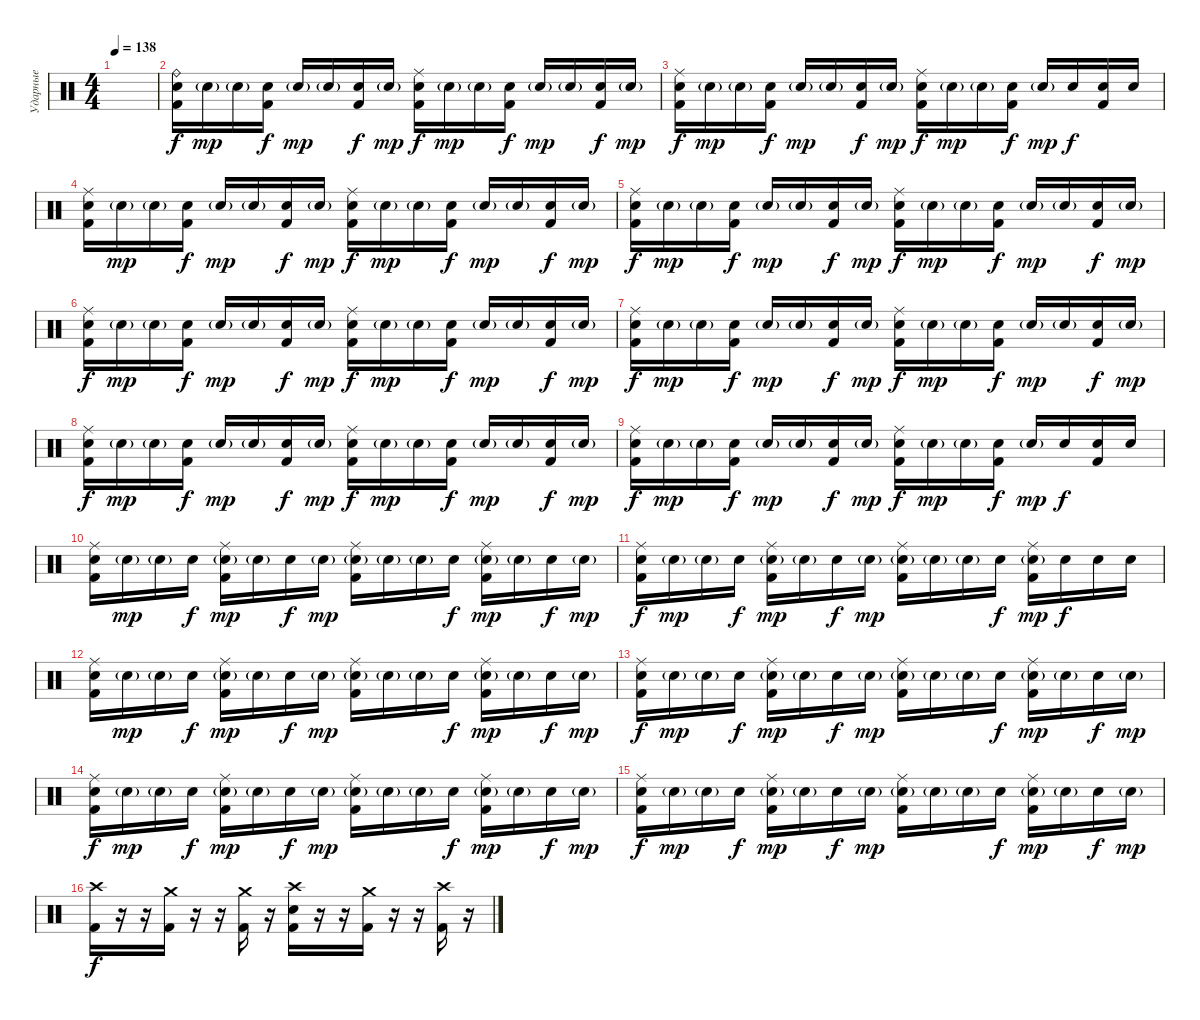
\track ("Ударные" "Ударные") {instrument percussion}
\staff {score}
\articulation defaults
\ts (4 4)
\tempo 138
\clef neutral
\ks c
|
("Electric Snare (hit)" "Kick (hit) 2" "Ride (bell)").16 "Electric Snare (hit)"{g}.16{dy mp} "Electric Snare (hit)"{g}.16 ("Electric Snare (hit)" "Kick (hit) 2").16{dy f} "Electric Snare (hit)"{g}.16{dy mp} "Electric Snare (hit)"{g}.16 ("Electric Snare (hit)" "Kick (hit) 2").16{dy f} "Electric Snare (hit)"{g}.16{dy mp} ("Electric Snare (hit)" "Kick (hit) 2" "Ride (middle)").16{dy f} "Electric Snare (hit)"{g}.16{dy mp} "Electric Snare (hit)"{g}.16 ("Electric Snare (hit)" "Kick (hit) 2").16{dy f} "Electric Snare (hit)"{g}.16{dy mp} "Electric Snare (hit)"{g}.16 ("Electric Snare (hit)" "Kick (hit) 2").16{dy f} "Electric Snare (hit)"{g}.16{dy mp} |
("Electric Snare (hit)" "Kick (hit) 2" "Ride (middle)").16{dy f} "Electric Snare (hit)"{g}.16{dy mp} "Electric Snare (hit)"{g}.16 ("Electric Snare (hit)" "Kick (hit) 2").16{dy f} "Electric Snare (hit)"{g}.16{dy mp} "Electric Snare (hit)"{g}.16 ("Electric Snare (hit)" "Kick (hit) 2").16{dy f} "Electric Snare (hit)"{g}.16{dy mp} ("Electric Snare (hit)" "Kick (hit) 2" "Ride (middle)").16{dy f} "Electric Snare (hit)"{g}.16{dy mp} "Electric Snare (hit)"{g}.16 ("Electric Snare (hit)" "Kick (hit) 2").16{dy f} "Electric Snare (hit)"{g}.16{dy mp} "Electric Snare (hit)".16{dy f} ("Electric Snare (hit)" "Kick (hit) 2").16 "Electric Snare (hit)".16 |
("Electric Snare (hit)" "Kick (hit) 2" "Ride (middle)").16 "Electric Snare (hit)"{g}.16{dy mp} "Electric Snare (hit)"{g}.16 ("Electric Snare (hit)" "Kick (hit) 2").16{dy f} "Electric Snare (hit)"{g}.16{dy mp} "Electric Snare (hit)"{g}.16 ("Electric Snare (hit)" "Kick (hit) 2").16{dy f} "Electric Snare (hit)"{g}.16{dy mp} ("Electric Snare (hit)" "Kick (hit) 2" "Ride (middle)").16{dy f} "Electric Snare (hit)"{g}.16{dy mp} "Electric Snare (hit)"{g}.16 ("Electric Snare (hit)" "Kick (hit) 2").16{dy f} "Electric Snare (hit)"{g}.16{dy mp} "Electric Snare (hit)"{g}.16 ("Electric Snare (hit)" "Kick (hit) 2").16{dy f} "Electric Snare (hit)"{g}.16{dy mp} |
("Electric Snare (hit)" "Kick (hit) 2" "Ride (middle)").16{dy f} "Electric Snare (hit)"{g}.16{dy mp} "Electric Snare (hit)"{g}.16 ("Electric Snare (hit)" "Kick (hit) 2").16{dy f} "Electric Snare (hit)"{g}.16{dy mp} "Electric Snare (hit)"{g}.16 ("Electric Snare (hit)" "Kick (hit) 2").16{dy f} "Electric Snare (hit)"{g}.16{dy mp} ("Electric Snare (hit)" "Kick (hit) 2" "Ride (middle)").16{dy f} "Electric Snare (hit)"{g}.16{dy mp} "Electric Snare (hit)"{g}.16 ("Electric Snare (hit)" "Kick (hit) 2").16{dy f} "Electric Snare (hit)"{g}.16{dy mp} "Electric Snare (hit)"{g}.16 ("Electric Snare (hit)" "Kick (hit) 2").16{dy f} "Electric Snare (hit)"{g}.16{dy mp} |
("Electric Snare (hit)" "Kick (hit) 2" "Ride (middle)").16{dy f} "Electric Snare (hit)"{g}.16{dy mp} "Electric Snare (hit)"{g}.16 ("Electric Snare (hit)" "Kick (hit) 2").16{dy f} "Electric Snare (hit)"{g}.16{dy mp} "Electric Snare (hit)"{g}.16 ("Electric Snare (hit)" "Kick (hit) 2").16{dy f} "Electric Snare (hit)"{g}.16{dy mp} ("Electric Snare (hit)" "Kick (hit) 2" "Ride (middle)").16{dy f} "Electric Snare (hit)"{g}.16{dy mp} "Electric Snare (hit)"{g}.16 ("Electric Snare (hit)" "Kick (hit) 2").16{dy f} "Electric Snare (hit)"{g}.16{dy mp} "Electric Snare (hit)"{g}.16 ("Electric Snare (hit)" "Kick (hit) 2").16{dy f} "Electric Snare (hit)"{g}.16{dy mp} |
("Electric Snare (hit)" "Kick (hit) 2" "Ride (middle)").16{dy f} "Electric Snare (hit)"{g}.16{dy mp} "Electric Snare (hit)"{g}.16 ("Electric Snare (hit)" "Kick (hit) 2").16{dy f} "Electric Snare (hit)"{g}.16{dy mp} "Electric Snare (hit)"{g}.16 ("Electric Snare (hit)" "Kick (hit) 2").16{dy f} "Electric Snare (hit)"{g}.16{dy mp} ("Electric Snare (hit)" "Kick (hit) 2" "Ride (middle)").16{dy f} "Electric Snare (hit)"{g}.16{dy mp} "Electric Snare (hit)"{g}.16 ("Electric Snare (hit)" "Kick (hit) 2").16{dy f} "Electric Snare (hit)"{g}.16{dy mp} "Electric Snare (hit)"{g}.16 ("Electric Snare (hit)" "Kick (hit) 2").16{dy f} "Electric Snare (hit)"{g}.16{dy mp} |
("Electric Snare (hit)" "Kick (hit) 2" "Ride (middle)").16{dy f} "Electric Snare (hit)"{g}.16{dy mp} "Electric Snare (hit)"{g}.16 ("Electric Snare (hit)" "Kick (hit) 2").16{dy f} "Electric Snare (hit)"{g}.16{dy mp} "Electric Snare (hit)"{g}.16 ("Electric Snare (hit)" "Kick (hit) 2").16{dy f} "Electric Snare (hit)"{g}.16{dy mp} ("Electric Snare (hit)" "Kick (hit) 2" "Ride (middle)").16{dy f} "Electric Snare (hit)"{g}.16{dy mp} "Electric Snare (hit)"{g}.16 ("Electric Snare (hit)" "Kick (hit) 2").16{dy f} "Electric Snare (hit)"{g}.16{dy mp} "Electric Snare (hit)"{g}.16 ("Electric Snare (hit)" "Kick (hit) 2").16{dy f} "Electric Snare (hit)"{g}.16{dy mp} |
("Electric Snare (hit)" "Kick (hit) 2" "Ride (middle)").16{dy f} "Electric Snare (hit)"{g}.16{dy mp} "Electric Snare (hit)"{g}.16 ("Electric Snare (hit)" "Kick (hit) 2").16{dy f} "Electric Snare (hit)"{g}.16{dy mp} "Electric Snare (hit)"{g}.16 ("Electric Snare (hit)" "Kick (hit) 2").16{dy f} "Electric Snare (hit)"{g}.16{dy mp} ("Electric Snare (hit)" "Kick (hit) 2" "Ride (middle)").16{dy f} "Electric Snare (hit)"{g}.16{dy mp} "Electric Snare (hit)"{g}.16 ("Electric Snare (hit)" "Kick (hit) 2").16{dy f} "Electric Snare (hit)"{g}.16{dy mp} "Electric Snare (hit)".16{dy f} ("Electric Snare (hit)" "Kick (hit) 2").16 "Electric Snare (hit)".16 |
("Electric Snare (hit)" "Kick (hit) 2" "Ride (middle)").16 "Electric Snare (hit)"{g}.16{dy mp} "Electric Snare (hit)"{g}.16 "Electric Snare (hit)".16{dy f} ("Electric Snare (hit)"{g} "Ride (middle)" "Kick (hit) 2").16{dy mp} "Electric Snare (hit)"{g}.16 "Electric Snare (hit)".16{dy f} "Electric Snare (hit)"{g}.16{dy mp} ("Electric Snare (hit)"{g} "Kick (hit) 2" "Ride (middle)").16 "Electric Snare (hit)"{g}.16 "Electric Snare (hit)"{g}.16 "Electric Snare (hit)".16{dy f} ("Electric Snare (hit)"{g} "Ride (middle)" "Kick (hit) 2").16{dy mp} "Electric Snare (hit)"{g}.16 "Electric Snare (hit)".16{dy f} "Electric Snare (hit)"{g}.16{dy mp} |
("Electric Snare (hit)" "Kick (hit) 2" "Ride (middle)").16{dy f} "Electric Snare (hit)"{g}.16{dy mp} "Electric Snare (hit)"{g}.16 "Electric Snare (hit)".16{dy f} ("Electric Snare (hit)"{g} "Ride (middle)" "Kick (hit) 2").16{dy mp} "Electric Snare (hit)"{g}.16 "Electric Snare (hit)".16{dy f} "Electric Snare (hit)"{g}.16{dy mp} ("Electric Snare (hit)"{g} "Kick (hit) 2" "Ride (middle)").16 "Electric Snare (hit)"{g}.16 "Electric Snare (hit)"{g}.16 "Electric Snare (hit)".16{dy f} ("Electric Snare (hit)"{g} "Ride (middle)" "Kick (hit) 2").16{dy mp} "Electric Snare (hit)".16{dy f} "Electric Snare (hit)".16 "Electric Snare (hit)".16 |
("Electric Snare (hit)" "Kick (hit) 2" "Ride (middle)").16 "Electric Snare (hit)"{g}.16{dy mp} "Electric Snare (hit)"{g}.16 "Electric Snare (hit)".16{dy f} ("Electric Snare (hit)"{g} "Ride (middle)" "Kick (hit) 2").16{dy mp} "Electric Snare (hit)"{g}.16 "Electric Snare (hit)".16{dy f} "Electric Snare (hit)"{g}.16{dy mp} ("Electric Snare (hit)"{g} "Kick (hit) 2" "Ride (middle)").16 "Electric Snare (hit)"{g}.16 "Electric Snare (hit)"{g}.16 "Electric Snare (hit)".16{dy f} ("Electric Snare (hit)"{g} "Ride (middle)" "Kick (hit) 2").16{dy mp} "Electric Snare (hit)"{g}.16 "Electric Snare (hit)".16{dy f} "Electric Snare (hit)"{g}.16{dy mp} |
("Electric Snare (hit)" "Kick (hit) 2" "Ride (middle)").16{dy f} "Electric Snare (hit)"{g}.16{dy mp} "Electric Snare (hit)"{g}.16 "Electric Snare (hit)".16{dy f} ("Electric Snare (hit)"{g} "Ride (middle)" "Kick (hit) 2").16{dy mp} "Electric Snare (hit)"{g}.16 "Electric Snare (hit)".16{dy f} "Electric Snare (hit)"{g}.16{dy mp} ("Electric Snare (hit)"{g} "Kick (hit) 2" "Ride (middle)").16 "Electric Snare (hit)"{g}.16 "Electric Snare (hit)"{g}.16 "Electric Snare (hit)".16{dy f} ("Electric Snare (hit)"{g} "Ride (middle)" "Kick (hit) 2").16{dy mp} "Electric Snare (hit)"{g}.16 "Electric Snare (hit)".16{dy f} "Electric Snare (hit)"{g}.16{dy mp} |
("Electric Snare (hit)" "Kick (hit) 2" "Ride (middle)").16{dy f} "Electric Snare (hit)"{g}.16{dy mp} "Electric Snare (hit)"{g}.16 "Electric Snare (hit)".16{dy f} ("Electric Snare (hit)"{g} "Ride (middle)" "Kick (hit) 2").16{dy mp} "Electric Snare (hit)"{g}.16 "Electric Snare (hit)".16{dy f} "Electric Snare (hit)"{g}.16{dy mp} ("Electric Snare (hit)"{g} "Kick (hit) 2" "Ride (middle)").16 "Electric Snare (hit)"{g}.16 "Electric Snare (hit)"{g}.16 "Electric Snare (hit)".16{dy f} ("Electric Snare (hit)"{g} "Ride (middle)" "Kick (hit) 2").16{dy mp} "Electric Snare (hit)"{g}.16 "Electric Snare (hit)".16{dy f} "Electric Snare (hit)"{g}.16{dy mp} |
("Electric Snare (hit)" "Kick (hit) 2" "Ride (middle)").16{dy f} "Electric Snare (hit)"{g}.16{dy mp} "Electric Snare (hit)"{g}.16 "Electric Snare (hit)".16{dy f} ("Electric Snare (hit)"{g} "Ride (middle)" "Kick (hit) 2").16{dy mp} "Electric Snare (hit)"{g}.16 "Electric Snare (hit)".16{dy f} "Electric Snare (hit)"{g}.16{dy mp} ("Electric Snare (hit)"{g} "Kick (hit) 2" "Ride (middle)").16 "Electric Snare (hit)"{g}.16 "Electric Snare (hit)"{g}.16 "Electric Snare (hit)".16{dy f} ("Electric Snare (hit)"{g} "Ride (middle)" "Kick (hit) 2").16{dy mp} "Electric Snare (hit)"{g}.16 "Electric Snare (hit)".16{dy f} "Electric Snare (hit)"{g}.16{dy mp} |
("Crash high (hit)" "Kick (hit) 2").16{dy f} r.16 r.16 ("Crash medium (hit)" "Kick (hit) 2").16 r.16 r.16 ("Crash medium (hit)" "Kick (hit) 2").16 r.16 ("Crash high (hit)" "Electric Snare (hit)" "Kick (hit) 2").16 r.16 r.16 ("Crash medium (hit)" "Kick (hit) 2").16 r.16 r.16 ("Crash high (hit)" "Kick (hit) 2").16 r.16
